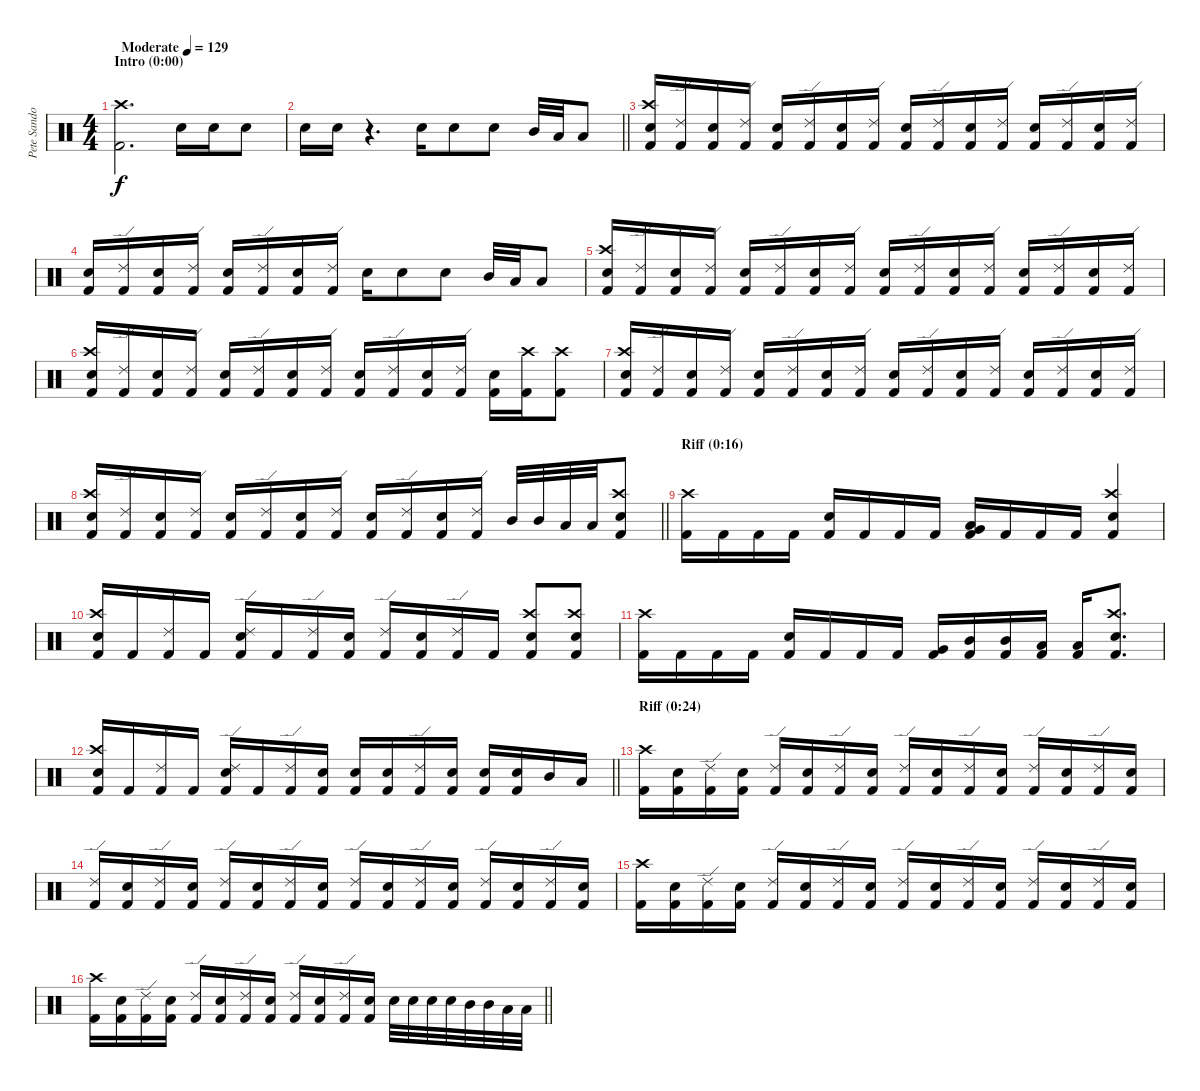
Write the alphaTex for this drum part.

\track ("Pete Sandoval " "Pete Sando") {instrument percussion}
\staff {score}
\articulation defaults
\ts (4 4)
\section ("" "Intro (0:00)")
\tempo (129 "Moderate")
\clef neutral
\ks c
("Kick (hit) 2" "Crash high (hit)").2{d dy f} "Snare (hit) 2".16 "Snare (hit) 2".16 "Snare (hit) 2".8 |
\barLineRight lightlight "Snare (hit) 2".16 "Snare (hit) 2".16
r.4{d} "Snare (hit) 2".16 "Snare (hit) 2".8 "Snare (hit) 2".8 "Mid Tom (hit)".32 "Low Tom (hit)".32 "Low Tom (hit)".8 |
("Kick (hit) 2" "Snare (hit) 2" "Crash high (hit)").16 ("Kick (hit) 2" "Ride (edge) 2").16 ("Kick (hit) 2" "Snare (hit) 2").16 ("Kick (hit) 2" "Ride (edge) 2").16 ("Kick (hit) 2" "Snare (hit) 2").16 ("Kick (hit) 2" "Ride (edge) 2").16 ("Kick (hit) 2" "Snare (hit) 2").16 ("Kick (hit) 2" "Ride (edge) 2").16 ("Kick (hit) 2" "Snare (hit) 2").16 ("Kick (hit) 2" "Ride (edge) 2").16 ("Kick (hit) 2" "Snare (hit) 2").16 ("Kick (hit) 2" "Ride (edge) 2").16 ("Kick (hit) 2" "Snare (hit) 2").16 ("Kick (hit) 2" "Ride (edge) 2").16 ("Kick (hit) 2" "Snare (hit) 2").16 ("Kick (hit) 2" "Ride (edge) 2").16 |
("Kick (hit) 2" "Snare (hit) 2").16 ("Kick (hit) 2" "Ride (edge) 2").16 ("Kick (hit) 2" "Snare (hit) 2").16 ("Kick (hit) 2" "Ride (edge) 2").16 ("Kick (hit) 2" "Snare (hit) 2").16 ("Kick (hit) 2" "Ride (edge) 2").16 ("Kick (hit) 2" "Snare (hit) 2").16 ("Kick (hit) 2" "Ride (edge) 2").16 "Snare (hit) 2".16 "Snare (hit) 2".8 "Snare (hit) 2".8 "Mid Tom (hit)".32 "Low Tom (hit)".32 "Low Tom (hit)".8 |
("Kick (hit) 2" "Snare (hit) 2" "Crash high (hit)").16 ("Kick (hit) 2" "Ride (edge) 2").16 ("Kick (hit) 2" "Snare (hit) 2").16 ("Kick (hit) 2" "Ride (edge) 2").16 ("Kick (hit) 2" "Snare (hit) 2").16 ("Kick (hit) 2" "Ride (edge) 2").16 ("Kick (hit) 2" "Snare (hit) 2").16 ("Kick (hit) 2" "Ride (edge) 2").16 ("Kick (hit) 2" "Snare (hit) 2").16 ("Kick (hit) 2" "Ride (edge) 2").16 ("Kick (hit) 2" "Snare (hit) 2").16 ("Kick (hit) 2" "Ride (edge) 2").16 ("Kick (hit) 2" "Snare (hit) 2").16 ("Kick (hit) 2" "Ride (edge) 2").16 ("Kick (hit) 2" "Snare (hit) 2").16 ("Kick (hit) 2" "Ride (edge) 2").16 |
("Kick (hit) 2" "Snare (hit) 2" "Crash high (hit)").16 ("Kick (hit) 2" "Ride (edge) 2").16 ("Kick (hit) 2" "Snare (hit) 2").16 ("Kick (hit) 2" "Ride (edge) 2").16 ("Kick (hit) 2" "Snare (hit) 2").16 ("Kick (hit) 2" "Ride (edge) 2").16 ("Kick (hit) 2" "Snare (hit) 2").16 ("Kick (hit) 2" "Ride (edge) 2").16 ("Kick (hit) 2" "Snare (hit) 2").16 ("Kick (hit) 2" "Ride (edge) 2").16 ("Kick (hit) 2" "Snare (hit) 2").16 ("Kick (hit) 2" "Ride (edge) 2").16 ("Kick (hit) 2" "Snare (hit) 2").16 ("Kick (hit) 2" "Crash high (hit)").16 ("Kick (hit) 2" "Crash high (hit)").8 |
("Kick (hit) 2" "Snare (hit) 2" "Crash high (hit)").16 ("Kick (hit) 2" "Ride (edge) 2").16 ("Kick (hit) 2" "Snare (hit) 2").16 ("Kick (hit) 2" "Ride (edge) 2").16 ("Kick (hit) 2" "Snare (hit) 2").16 ("Kick (hit) 2" "Ride (edge) 2").16 ("Kick (hit) 2" "Snare (hit) 2").16 ("Kick (hit) 2" "Ride (edge) 2").16 ("Kick (hit) 2" "Snare (hit) 2").16 ("Kick (hit) 2" "Ride (edge) 2").16 ("Kick (hit) 2" "Snare (hit) 2").16 ("Kick (hit) 2" "Ride (edge) 2").16 ("Kick (hit) 2" "Snare (hit) 2").16 ("Kick (hit) 2" "Ride (edge) 2").16 ("Kick (hit) 2" "Snare (hit) 2").16 ("Kick (hit) 2" "Ride (edge) 2").16 |
\barLineRight lightlight
("Kick (hit) 2" "Snare (hit) 2" "Crash high (hit)").16 ("Kick (hit) 2" "Ride (edge) 2").16 ("Kick (hit) 2" "Snare (hit) 2").16 ("Kick (hit) 2" "Ride (edge) 2").16 ("Kick (hit) 2" "Snare (hit) 2").16 ("Kick (hit) 2" "Ride (edge) 2").16 ("Kick (hit) 2" "Snare (hit) 2").16 ("Kick (hit) 2" "Ride (edge) 2").16 ("Kick (hit) 2" "Snare (hit) 2").16 ("Kick (hit) 2" "Ride (edge) 2").16 ("Kick (hit) 2" "Snare (hit) 2").16 ("Kick (hit) 2" "Ride (edge) 2").16 "Mid Tom (hit)".32 "Mid Tom (hit)".32 "Low Tom (hit)".32 "Low Tom (hit)".32 ("Kick (hit) 2" "Snare (hit) 2" "Crash high (hit)").8 |
\section ("" "Riff (0:16)")
("Kick (hit) 2" "Crash high (hit)").16 "Kick (hit) 2".16 "Kick (hit) 2".16 "Kick (hit) 2".16 ("Kick (hit) 2" "Snare (hit) 2").16 "Kick (hit) 2".16 "Kick (hit) 2".16 "Kick (hit) 2".16 ("Kick (hit) 2" "Very Low Tom (hit)" "Low Floor Tom (hit)").16 "Kick (hit) 2".16 "Kick (hit) 2".16 "Kick (hit) 2".16 ("Kick (hit) 2" "Snare (hit) 2" "Crash high (hit)").4 |
("Kick (hit) 2" "Snare (hit) 2" "Crash high (hit)").16 "Kick (hit) 2".16 ("Kick (hit) 2" "Ride (edge) 2").16 "Kick (hit) 2".16 ("Kick (hit) 2" "Snare (hit) 2" "Ride (edge) 2").16 "Kick (hit) 2".16 ("Kick (hit) 2" "Ride (edge) 2").16 ("Kick (hit) 2" "Snare (hit) 2").16 ("Kick (hit) 2" "Ride (edge) 2").16 ("Kick (hit) 2" "Snare (hit) 2").16 ("Kick (hit) 2" "Ride (edge) 2").16 "Kick (hit) 2".16 ("Kick (hit) 2" "Snare (hit) 2" "Crash high (hit)").8 ("Kick (hit) 2" "Snare (hit) 2" "Crash high (hit)").8 |
("Kick (hit) 2" "Crash high (hit)").16 "Kick (hit) 2".16 "Kick (hit) 2".16 "Kick (hit) 2".16 ("Kick (hit) 2" "Snare (hit) 2").16 "Kick (hit) 2".16 "Kick (hit) 2".16 "Kick (hit) 2".16 ("Kick (hit) 2" "Very Low Tom (hit)").16 ("Kick (hit) 2" "Mid Tom (hit)").16 ("Kick (hit) 2" "Mid Tom (hit)").16 ("Kick (hit) 2" "Low Tom (hit)").16 ("Kick (hit) 2" "Low Tom (hit)").16 ("Kick (hit) 2" "Snare (hit) 2" "Crash high (hit)").8{d} |
\barLineRight lightlight
("Kick (hit) 2" "Snare (hit) 2" "Crash high (hit)").16 "Kick (hit) 2".16 ("Kick (hit) 2" "Ride (edge) 2").16 "Kick (hit) 2".16 ("Kick (hit) 2" "Snare (hit) 2" "Ride (edge) 2").16 "Kick (hit) 2".16 ("Kick (hit) 2" "Ride (edge) 2").16 ("Kick (hit) 2" "Snare (hit) 2").16 ("Kick (hit) 2" "Snare (hit) 2").16 ("Kick (hit) 2" "Snare (hit) 2").16 ("Kick (hit) 2" "Ride (edge) 2").16 ("Kick (hit) 2" "Snare (hit) 2").16 ("Kick (hit) 2" "Snare (hit) 2").16 ("Kick (hit) 2" "Snare (hit) 2").16 "Mid Tom (hit)".16 "Low Tom (hit)".16 |
\section ("" "Riff (0:24)")
("Kick (hit) 2" "Crash high (hit)").16 ("Kick (hit) 2" "Snare (hit) 2").16 ("Kick (hit) 2" "Ride (edge) 2").16 ("Kick (hit) 2" "Snare (hit) 2").16 ("Kick (hit) 2" "Ride (edge) 2").16 ("Kick (hit) 2" "Snare (hit) 2").16 ("Kick (hit) 2" "Ride (edge) 2").16 ("Kick (hit) 2" "Snare (hit) 2").16 ("Kick (hit) 2" "Ride (edge) 2").16 ("Kick (hit) 2" "Snare (hit) 2").16 ("Kick (hit) 2" "Ride (edge) 2").16 ("Kick (hit) 2" "Snare (hit) 2").16 ("Kick (hit) 2" "Ride (edge) 2").16 ("Kick (hit) 2" "Snare (hit) 2").16 ("Kick (hit) 2" "Ride (edge) 2").16 ("Kick (hit) 2" "Snare (hit) 2").16 |
("Kick (hit) 2" "Ride (edge) 2").16 ("Kick (hit) 2" "Snare (hit) 2").16 ("Kick (hit) 2" "Ride (edge) 2").16 ("Kick (hit) 2" "Snare (hit) 2").16 ("Kick (hit) 2" "Ride (edge) 2").16 ("Kick (hit) 2" "Snare (hit) 2").16 ("Kick (hit) 2" "Ride (edge) 2").16 ("Kick (hit) 2" "Snare (hit) 2").16 ("Kick (hit) 2" "Ride (edge) 2").16 ("Kick (hit) 2" "Snare (hit) 2").16 ("Kick (hit) 2" "Ride (edge) 2").16 ("Kick (hit) 2" "Snare (hit) 2").16 ("Kick (hit) 2" "Ride (edge) 2").16 ("Kick (hit) 2" "Snare (hit) 2").16 ("Kick (hit) 2" "Ride (edge) 2").16 ("Kick (hit) 2" "Snare (hit) 2").16 |
("Kick (hit) 2" "Crash high (hit)").16 ("Kick (hit) 2" "Snare (hit) 2").16 ("Kick (hit) 2" "Ride (edge) 2").16 ("Kick (hit) 2" "Snare (hit) 2").16 ("Kick (hit) 2" "Ride (edge) 2").16 ("Kick (hit) 2" "Snare (hit) 2").16 ("Kick (hit) 2" "Ride (edge) 2").16 ("Kick (hit) 2" "Snare (hit) 2").16 ("Kick (hit) 2" "Ride (edge) 2").16 ("Kick (hit) 2" "Snare (hit) 2").16 ("Kick (hit) 2" "Ride (edge) 2").16 ("Kick (hit) 2" "Snare (hit) 2").16 ("Kick (hit) 2" "Ride (edge) 2").16 ("Kick (hit) 2" "Snare (hit) 2").16 ("Kick (hit) 2" "Ride (edge) 2").16 ("Kick (hit) 2" "Snare (hit) 2").16 |
\barLineRight lightlight
("Kick (hit) 2" "Crash high (hit)").16 ("Kick (hit) 2" "Snare (hit) 2").16 ("Kick (hit) 2" "Ride (edge) 2").16 ("Kick (hit) 2" "Snare (hit) 2").16 ("Kick (hit) 2" "Ride (edge) 2").16 ("Kick (hit) 2" "Snare (hit) 2").16 ("Kick (hit) 2" "Ride (edge) 2").16 ("Kick (hit) 2" "Snare (hit) 2").16 ("Kick (hit) 2" "Ride (edge) 2").16 ("Kick (hit) 2" "Snare (hit) 2").16 ("Kick (hit) 2" "Ride (edge) 2").16 ("Kick (hit) 2" "Snare (hit) 2").16 "Snare (hit) 2".32 "Snare (hit) 2".32 "Snare (hit) 2".32 "Snare (hit) 2".32 "Mid Tom (hit)".32 "Mid Tom (hit)".32 "Low Tom (hit)".32 "Low Tom (hit)".32
